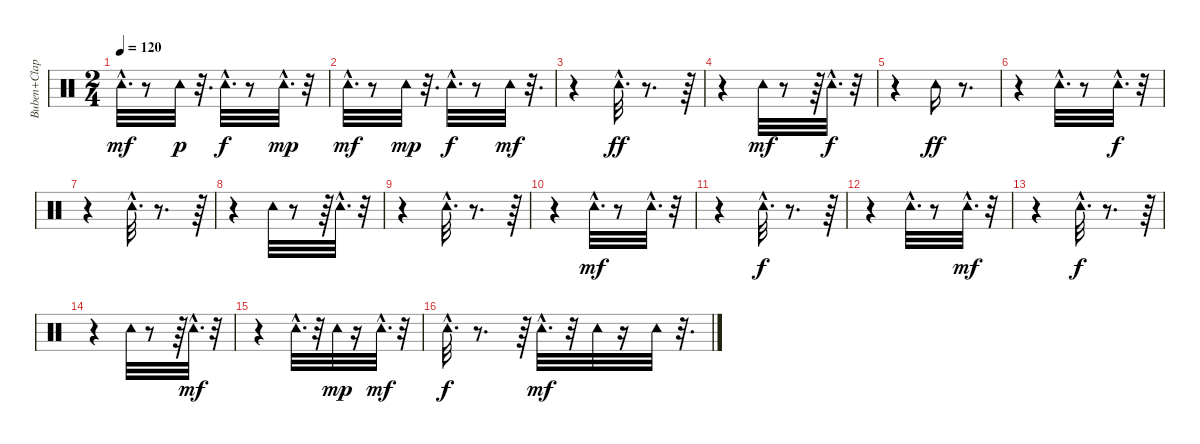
\track ("Buben+Clap" "Buben+Clap") {instrument percussion}
\staff {score}
\articulation defaults
\ts (2 4)
\tempo 120
\clef neutral
\ks c "Tambourine (hit)"{hac}.32{d dy mf}
r.8 "Tambourine (hit)".32{dy p} r.32{d} "Tambourine (hit)"{hac}.32{d dy f} r.8 "Tambourine (hit)"{hac}.32{d dy mp} r.32 |
"Tambourine (hit)"{hac}.32{d dy mf} r.8 "Tambourine (hit)".32{dy mp} r.32{d} "Tambourine (hit)"{hac}.32{d dy f} r.8 "Tambourine (hit)".32{dy mf} r.32{d} |
r.4 "Tambourine (hit)"{hac}.32{d dy ff} r.8{d} r.64 |
r.4 "Tambourine (hit)".32{dy mf} r.8 r.64 "Tambourine (hit)"{hac}.32{d dy f} r.32 |
r.4 "Tambourine (hit)".16{dy ff} r.8{d} |
r.4 "Tambourine (hit)"{hac}.32{d} r.8 "Tambourine (hit)"{hac}.32{d dy f} r.32 |
r.4 "Tambourine (hit)"{hac}.32{d} r.8{d} r.64 |
r.4 "Tambourine (hit)".32 r.8 r.64 "Tambourine (hit)"{hac}.32{d} r.32 |
r.4 "Tambourine (hit)"{hac}.32{d} r.8{d} r.64 |
r.4 "Tambourine (hit)"{hac}.32{d dy mf} r.8 "Tambourine (hit)"{hac}.32{d} r.32 |
r.4 "Tambourine (hit)"{hac}.32{d dy f} r.8{d} r.64 |
r.4 "Tambourine (hit)"{hac}.32{d} r.8 "Tambourine (hit)"{hac}.32{d dy mf} r.32 |
r.4 "Tambourine (hit)"{hac}.32{d dy f} r.8{d} r.64 |
r.4 "Tambourine (hit)".32 r.8 r.64 "Tambourine (hit)"{hac}.32{d dy mf} r.32 |
r.4 "Tambourine (hit)"{hac}.32{d} r.32 "Tambourine (hit)".32{dy mp} r.16 "Tambourine (hit)"{hac}.32{d dy mf} r.32 |
"Tambourine (hit)"{hac}.32{d dy f} r.8{d} r.64 "Tambourine (hit)"{hac}.32{d dy mf} r.32 "Tambourine (hit)".32 r.16 "Tambourine (hit)".32 r.32{d}
